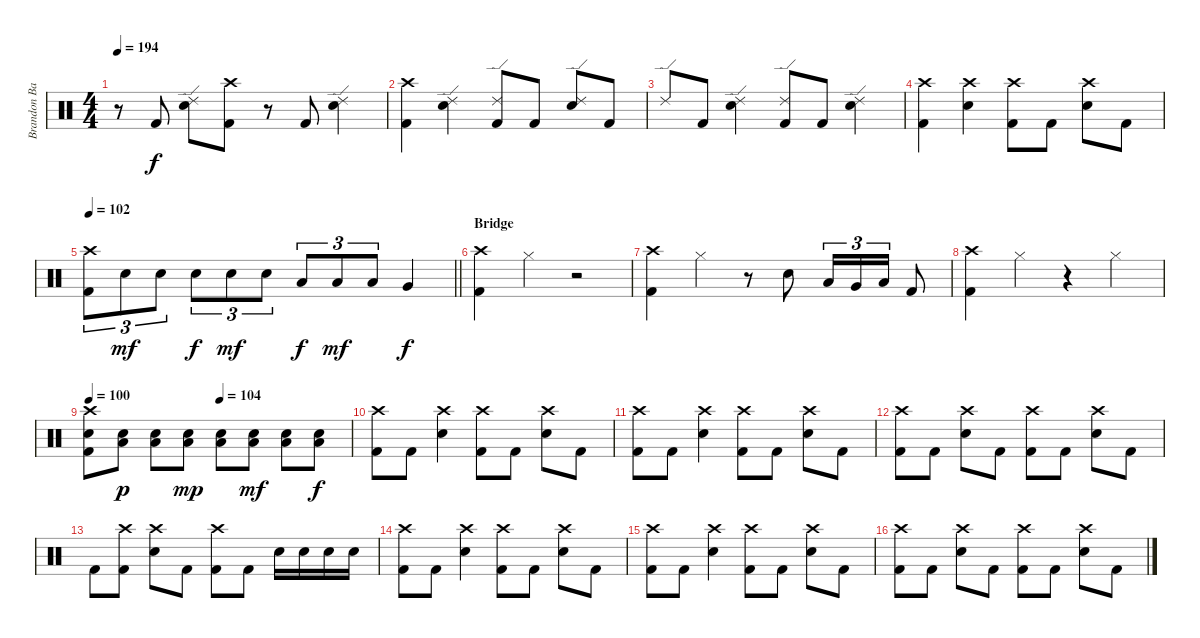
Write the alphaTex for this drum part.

\track ("Brandon Barnes - Drums" "Brandon Ba") {instrument percussion}
\staff {score}
\articulation defaults
\ts (4 4)
\tempo 194
\clef neutral
\ks c
r.8{dy f} "Kick (hit) 2".8 ("Snare (hit) 2" "Ride (edge) 2").8 ("Kick (hit) 2" "Crash high (hit)").8 r.8 "Kick (hit) 2".8 ("Snare (hit) 2" "Ride (edge) 2").4 |
("Crash high (hit)" "Kick (hit) 2").4 ("Snare (hit) 2" "Ride (edge) 2").4 ("Kick (hit) 2" "Ride (edge) 2").8 "Kick (hit) 2".8 ("Snare (hit) 2" "Ride (edge) 2").8 "Kick (hit) 2".8 |
"Ride (edge) 2".8 "Kick (hit) 2".8 ("Snare (hit) 2" "Ride (edge) 2").4 ("Kick (hit) 2" "Ride (edge) 2").8 "Kick (hit) 2".8 ("Snare (hit) 2" "Ride (edge) 2").4 |
("Crash high (hit)" "Kick (hit) 2").4 ("Snare (hit) 2" "Crash high (hit)").4 ("Kick (hit) 2" "Crash high (hit)").8 "Kick (hit) 2".8 ("Snare (hit) 2" "Crash high (hit)").8 "Kick (hit) 2".8 |
\tempo 102
\barLineRight lightlight
("Crash high (hit)" "Kick (hit) 2").8{tu (3 2)} "Snare (hit) 2".8{tu (3 2) dy mf} "Snare (hit) 2".8{tu (3 2)} "Snare (hit) 2".8{tu (3 2) dy f} "Snare (hit) 2".8{tu (3 2) dy mf} "Snare (hit) 2".8{tu (3 2)} "Low Tom (hit)".8{tu (3 2) dy f} "Low Tom (hit)".8{tu (3 2) dy mf} "Low Tom (hit)".8{tu (3 2)} "Very Low Tom (hit)".4{dy f} |
\section ("" "Bridge")
("Crash high (hit)" "Kick (hit) 2").4 "Hi-Hat (closed)".4 r.2 |
("Crash high (hit)" "Kick (hit) 2").4 "Hi-Hat (closed)".4 r.8 "Snare (hit) 2".8 "Low Tom (hit)".16{tu (3 2)} "Very Low Tom (hit)".16{tu (3 2)} "Low Floor Tom (hit)".16{tu (3 2)} "Kick (hit) 2".8 |
("Crash high (hit)" "Kick (hit) 2").4 "Hi-Hat (closed)".4 r.4 "Hi-Hat (closed)".4 |
\tempo 100
\tempo (104 0.5)
("Crash high (hit)" "Kick (hit) 2" "Snare (hit) 2").8 ("Snare (hit) 2" "Low Floor Tom (hit)").8{dy p} ("Snare (hit) 2" "Low Floor Tom (hit)").8 ("Snare (hit) 2" "Low Floor Tom (hit)").8{dy mp} ("Snare (hit) 2" "Low Floor Tom (hit)").8 ("Snare (hit) 2" "Low Floor Tom (hit)").8{dy mf} ("Snare (hit) 2" "Low Floor Tom (hit)").8 ("Snare (hit) 2" "Low Floor Tom (hit)").8{dy f} |
("Kick (hit) 2" "Crash high (hit)").8 "Kick (hit) 2".8 ("Snare (hit) 2" "Crash high (hit)").4 ("Kick (hit) 2" "Crash high (hit)").8 "Kick (hit) 2".8 ("Snare (hit) 2" "Crash high (hit)").8 "Kick (hit) 2".8 |
("Kick (hit) 2" "Crash high (hit)").8 "Kick (hit) 2".8 ("Snare (hit) 2" "Crash high (hit)").4 ("Kick (hit) 2" "Crash high (hit)").8 "Kick (hit) 2".8 ("Snare (hit) 2" "Crash high (hit)").8 "Kick (hit) 2".8 |
("Kick (hit) 2" "Crash high (hit)").8 "Kick (hit) 2".8 ("Snare (hit) 2" "Crash high (hit)").8 "Kick (hit) 2".8 ("Kick (hit) 2" "Crash high (hit)").8 "Kick (hit) 2".8 ("Snare (hit) 2" "Crash high (hit)").8 "Kick (hit) 2".8 |
"Kick (hit) 2".8 ("Kick (hit) 2" "Crash high (hit)").8 ("Snare (hit) 2" "Crash high (hit)").8 "Kick (hit) 2".8 ("Kick (hit) 2" "Crash high (hit)").8 "Kick (hit) 2".8 "Snare (hit) 2".16 "Snare (hit) 2".16 "Snare (hit) 2".16 "Snare (hit) 2".16 |
("Kick (hit) 2" "Crash high (hit)").8 "Kick (hit) 2".8 ("Snare (hit) 2" "Crash high (hit)").4 ("Kick (hit) 2" "Crash high (hit)").8 "Kick (hit) 2".8 ("Snare (hit) 2" "Crash high (hit)").8 "Kick (hit) 2".8 |
("Kick (hit) 2" "Crash high (hit)").8 "Kick (hit) 2".8 ("Snare (hit) 2" "Crash high (hit)").4 ("Kick (hit) 2" "Crash high (hit)").8 "Kick (hit) 2".8 ("Snare (hit) 2" "Crash high (hit)").8 "Kick (hit) 2".8 |
("Kick (hit) 2" "Crash high (hit)").8 "Kick (hit) 2".8 ("Snare (hit) 2" "Crash high (hit)").8 "Kick (hit) 2".8 ("Kick (hit) 2" "Crash high (hit)").8 "Kick (hit) 2".8 ("Snare (hit) 2" "Crash high (hit)").8 "Kick (hit) 2".8
